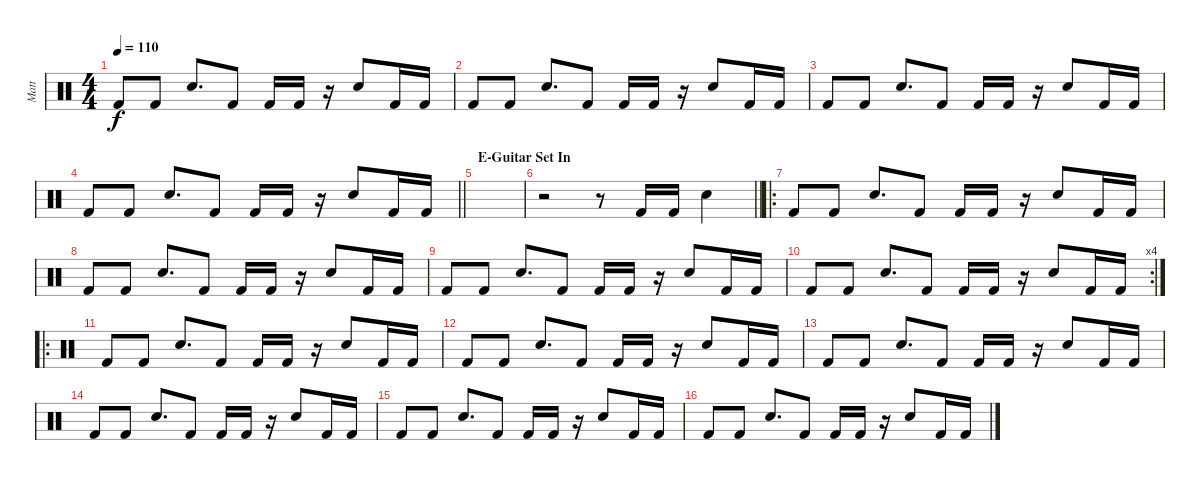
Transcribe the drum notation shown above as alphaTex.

\track ("Matt" "Matt") {instrument percussion}
\staff {score}
\articulation defaults
\ts (4 4)
\tempo 110
\clef neutral
\ks c "Kick (hit) 2".8{dy f} "Kick (hit) 2".8 "Snare (hit) 2".8{d} "Kick (hit) 2".8 "Kick (hit) 2".16 "Kick (hit) 2".16
r.16 "Snare (hit) 2".8 "Kick (hit) 2".16 "Kick (hit) 2".16 |
"Kick (hit) 2".8 "Kick (hit) 2".8 "Snare (hit) 2".8{d} "Kick (hit) 2".8 "Kick (hit) 2".16 "Kick (hit) 2".16 r.16 "Snare (hit) 2".8 "Kick (hit) 2".16 "Kick (hit) 2".16 |
"Kick (hit) 2".8 "Kick (hit) 2".8 "Snare (hit) 2".8{d} "Kick (hit) 2".8 "Kick (hit) 2".16 "Kick (hit) 2".16 r.16 "Snare (hit) 2".8 "Kick (hit) 2".16 "Kick (hit) 2".16 |
\barLineRight lightlight "Kick (hit) 2".8 "Kick (hit) 2".8 "Snare (hit) 2".8{d} "Kick (hit) 2".8 "Kick (hit) 2".16 "Kick (hit) 2".16
r.16 "Snare (hit) 2".8 "Kick (hit) 2".16 "Kick (hit) 2".16 |
\section ("" "E-Guitar Set In")
|
\barLineRight lightlight
r.2 r.8 "Kick (hit) 2".16 "Kick (hit) 2".16 "Snare (hit) 2".4 |
\ro "Kick (hit) 2".8 "Kick (hit) 2".8 "Snare (hit) 2".8{d} "Kick (hit) 2".8 "Kick (hit) 2".16 "Kick (hit) 2".16
r.16 "Snare (hit) 2".8 "Kick (hit) 2".16 "Kick (hit) 2".16 |
"Kick (hit) 2".8 "Kick (hit) 2".8 "Snare (hit) 2".8{d} "Kick (hit) 2".8 "Kick (hit) 2".16 "Kick (hit) 2".16 r.16 "Snare (hit) 2".8 "Kick (hit) 2".16 "Kick (hit) 2".16 |
"Kick (hit) 2".8 "Kick (hit) 2".8 "Snare (hit) 2".8{d} "Kick (hit) 2".8 "Kick (hit) 2".16 "Kick (hit) 2".16 r.16 "Snare (hit) 2".8 "Kick (hit) 2".16 "Kick (hit) 2".16 |
\rc 4 "Kick (hit) 2".8 "Kick (hit) 2".8 "Snare (hit) 2".8{d} "Kick (hit) 2".8 "Kick (hit) 2".16 "Kick (hit) 2".16
r.16 "Snare (hit) 2".8 "Kick (hit) 2".16 "Kick (hit) 2".16 |
\ro "Kick (hit) 2".8 "Kick (hit) 2".8 "Snare (hit) 2".8{d} "Kick (hit) 2".8 "Kick (hit) 2".16 "Kick (hit) 2".16
r.16 "Snare (hit) 2".8 "Kick (hit) 2".16 "Kick (hit) 2".16 |
"Kick (hit) 2".8 "Kick (hit) 2".8 "Snare (hit) 2".8{d} "Kick (hit) 2".8 "Kick (hit) 2".16 "Kick (hit) 2".16 r.16 "Snare (hit) 2".8 "Kick (hit) 2".16 "Kick (hit) 2".16 |
"Kick (hit) 2".8 "Kick (hit) 2".8 "Snare (hit) 2".8{d} "Kick (hit) 2".8 "Kick (hit) 2".16 "Kick (hit) 2".16 r.16 "Snare (hit) 2".8 "Kick (hit) 2".16 "Kick (hit) 2".16 |
"Kick (hit) 2".8 "Kick (hit) 2".8 "Snare (hit) 2".8{d} "Kick (hit) 2".8 "Kick (hit) 2".16 "Kick (hit) 2".16 r.16 "Snare (hit) 2".8 "Kick (hit) 2".16 "Kick (hit) 2".16 |
"Kick (hit) 2".8 "Kick (hit) 2".8 "Snare (hit) 2".8{d} "Kick (hit) 2".8 "Kick (hit) 2".16 "Kick (hit) 2".16 r.16 "Snare (hit) 2".8 "Kick (hit) 2".16 "Kick (hit) 2".16 |
"Kick (hit) 2".8 "Kick (hit) 2".8 "Snare (hit) 2".8{d} "Kick (hit) 2".8 "Kick (hit) 2".16 "Kick (hit) 2".16 r.16 "Snare (hit) 2".8 "Kick (hit) 2".16 "Kick (hit) 2".16
